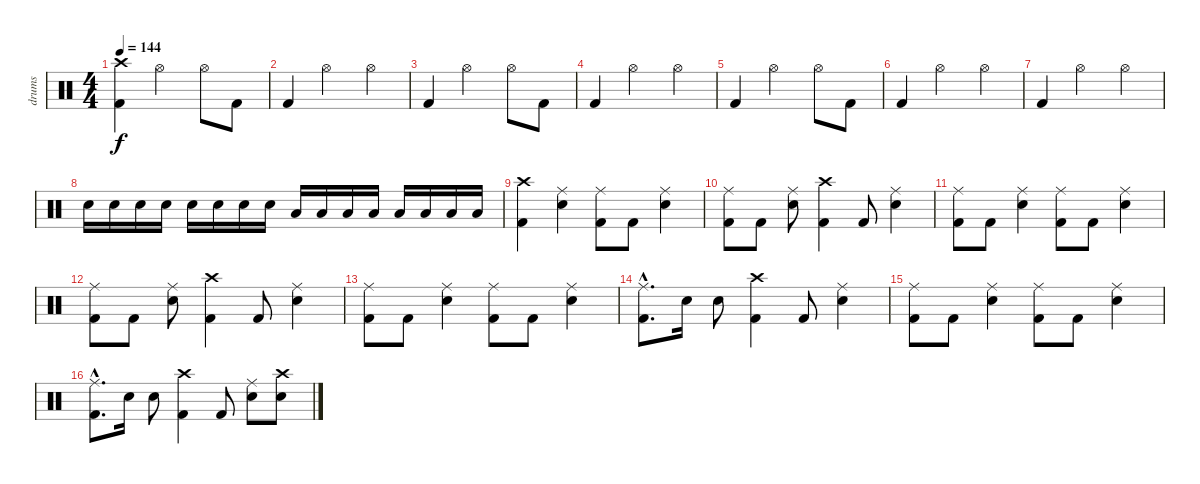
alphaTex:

\track ("drums" "drums") {instrument percussion}
\staff {score}
\articulation defaults
\ts (4 4)
\tempo 144
\clef neutral
\ks c
("Crash high (hit)" "Kick (hit) 2").4{dy f} "Hi-Hat (open)".2 "Hi-Hat (open)".8 "Kick (hit) 2".8 |
"Kick (hit) 2".4 "Hi-Hat (open)".2 "Hi-Hat (open)".4 |
"Kick (hit) 2".4 "Hi-Hat (open)".2 "Hi-Hat (open)".8 "Kick (hit) 2".8 |
"Kick (hit) 2".4 "Hi-Hat (open)".2 "Hi-Hat (open)".4 |
"Kick (hit) 2".4 "Hi-Hat (open)".2 "Hi-Hat (open)".8 "Kick (hit) 2".8 |
"Kick (hit) 2".4 "Hi-Hat (open)".2 "Hi-Hat (open)".4 |
"Kick (hit) 2".4 "Hi-Hat (open)".2 "Hi-Hat (open)".4 |
"Electric Snare (hit)".16 "Electric Snare (hit)".16 "Electric Snare (hit)".16 "Electric Snare (hit)".16 "Electric Snare (hit)".16 "Electric Snare (hit)".16 "Electric Snare (hit)".16 "Electric Snare (hit)".16 "Low Tom (hit)".16 "Low Tom (hit)".16 "Low Tom (hit)".16 "Low Tom (hit)".16 "Low Floor Tom (hit)".16 "Low Floor Tom (hit)".16 "Low Floor Tom (hit)".16 "Low Floor Tom (hit)".16 |
("Crash high (hit)" "Kick (hit) 2").4 ("Ride (middle)" "Electric Snare (hit)").4 ("Ride (middle)" "Kick (hit) 2").8 "Kick (hit) 2".8 ("Ride (middle)" "Electric Snare (hit)").4 |
("Ride (middle)" "Kick (hit) 2").8 "Kick (hit) 2".8 ("Ride (middle)" "Electric Snare (hit)").8 ("Crash high (hit)" "Kick (hit) 2").4 "Kick (hit) 2".8 ("Ride (middle)" "Electric Snare (hit)").4 |
("Ride (middle)" "Kick (hit) 2").8 "Kick (hit) 2".8 ("Ride (middle)" "Electric Snare (hit)").4 ("Ride (middle)" "Kick (hit) 2").8 "Kick (hit) 2".8 ("Ride (middle)" "Electric Snare (hit)").4 |
("Ride (middle)" "Kick (hit) 2").8 "Kick (hit) 2".8 ("Ride (middle)" "Electric Snare (hit)").8 ("Crash high (hit)" "Kick (hit) 2").4 "Kick (hit) 2".8 ("Ride (middle)" "Electric Snare (hit)").4 |
("Ride (middle)" "Kick (hit) 2").8 "Kick (hit) 2".8 ("Ride (middle)" "Electric Snare (hit)").4 ("Ride (middle)" "Kick (hit) 2").8 "Kick (hit) 2".8 ("Ride (middle)" "Electric Snare (hit)").4 |
("Ride (middle)"{hac} "Kick (hit) 2"{hac}).8{d} "Electric Snare (hit)".16 "Electric Snare (hit)".8 ("Crash high (hit)" "Kick (hit) 2").4 "Kick (hit) 2".8 ("Ride (middle)" "Electric Snare (hit)").4 |
("Ride (middle)" "Kick (hit) 2").8 "Kick (hit) 2".8 ("Ride (middle)" "Electric Snare (hit)").4 ("Ride (middle)" "Kick (hit) 2").8 "Kick (hit) 2".8 ("Ride (middle)" "Electric Snare (hit)").4 |
("Ride (middle)"{hac} "Kick (hit) 2"{hac}).8{d} "Electric Snare (hit)".16 "Electric Snare (hit)".8 ("Crash high (hit)" "Kick (hit) 2").4 "Kick (hit) 2".8 ("Ride (middle)" "Electric Snare (hit)").8 ("Crash high (hit)" "Electric Snare (hit)").8
